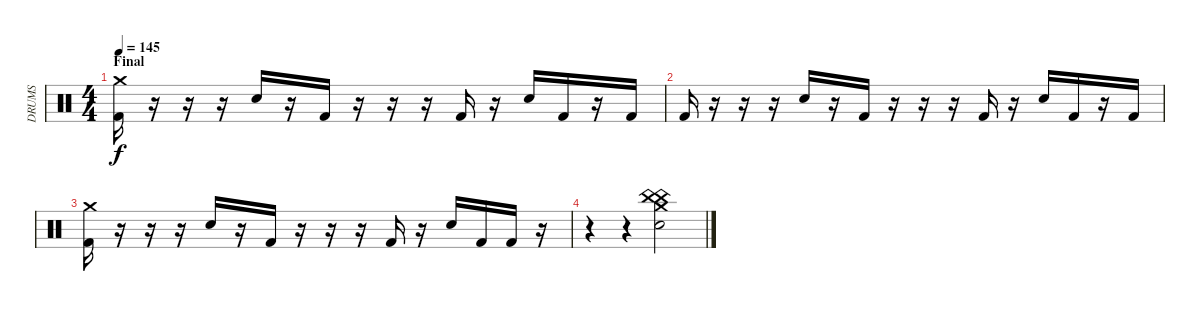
\track ("DRUMS" "DRUMS") {instrument percussion}
\staff {score}
\articulation defaults
\ts (4 4)
\section ("" "Final")
\tempo 145
\clef neutral
\ks c
("Crash medium (hit)" "Kick (hit) 2").16{dy f} r.16 r.16 r.16 "Electric Snare (hit)".16 r.16 "Kick (hit) 2".16 r.16 r.16 r.16 "Kick (hit) 2".16 r.16 "Electric Snare (hit)".16 "Kick (hit) 2".16 r.16 "Kick (hit) 2".16 |
"Kick (hit) 2".16 r.16 r.16 r.16 "Electric Snare (hit)".16 r.16 "Kick (hit) 2".16 r.16 r.16 r.16 "Kick (hit) 2".16 r.16 "Electric Snare (hit)".16 "Kick (hit) 2".16 r.16 "Kick (hit) 2".16 |
("Crash medium (hit)" "Kick (hit) 2").16 r.16 r.16 r.16 "Electric Snare (hit)".16 r.16 "Kick (hit) 2".16 r.16 r.16 r.16 "Kick (hit) 2".16 r.16 "Electric Snare (hit)".16 "Kick (hit) 2".16 "Kick (hit) 2".16 r.16 |
r.4 r.4 ("China (hit)" "China (hit)" "Electric Snare (hit)" "Crash medium (hit)").2
